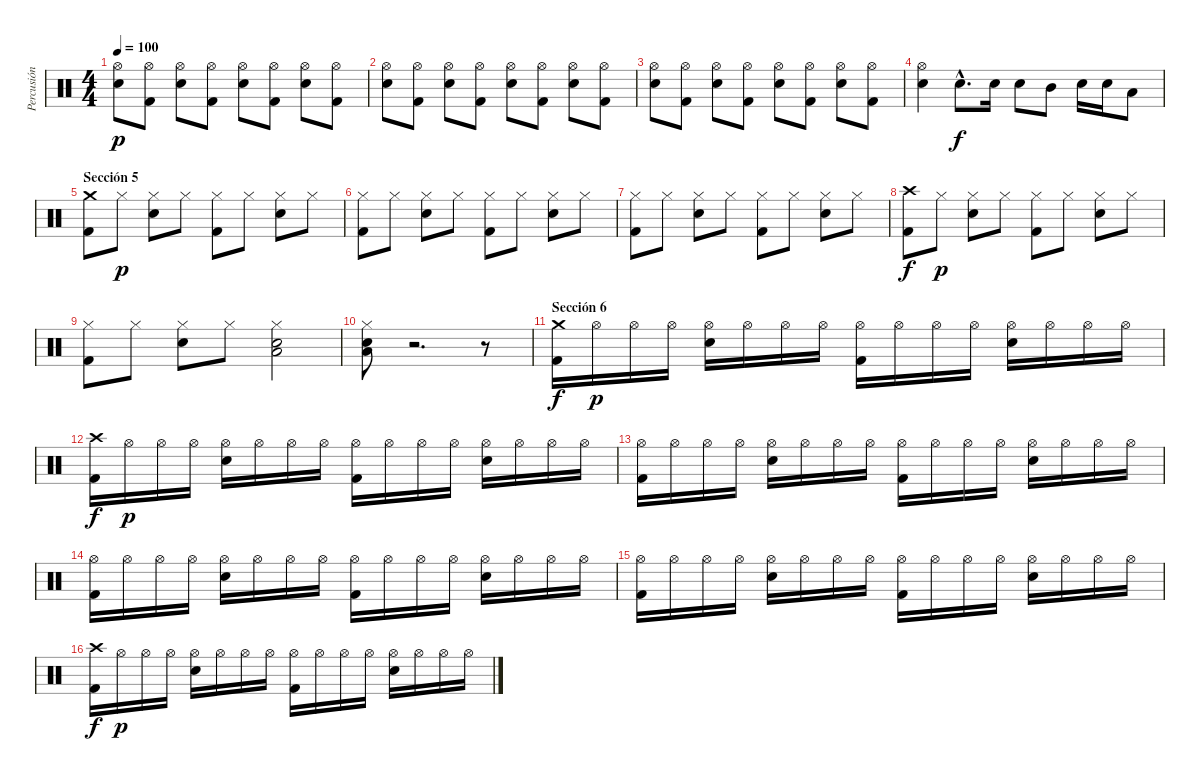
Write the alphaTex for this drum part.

\track ("Percusión" "Percusión") {instrument percussion}
\staff {score}
\articulation defaults
\ts (4 4)
\tempo 100
\clef neutral
\ks c
("Hi-Hat (open)" "Snare (hit) 2").8{dy p} ("Hi-Hat (open)" "Kick (hit) 2").8 ("Hi-Hat (open)" "Snare (hit) 2").8 ("Hi-Hat (open)" "Kick (hit) 2").8 ("Hi-Hat (open)" "Snare (hit) 2").8 ("Hi-Hat (open)" "Kick (hit) 2").8 ("Hi-Hat (open)" "Snare (hit) 2").8 ("Hi-Hat (open)" "Kick (hit) 2").8 |
("Hi-Hat (open)" "Snare (hit) 2").8 ("Hi-Hat (open)" "Kick (hit) 2").8 ("Hi-Hat (open)" "Snare (hit) 2").8 ("Hi-Hat (open)" "Kick (hit) 2").8 ("Hi-Hat (open)" "Snare (hit) 2").8 ("Hi-Hat (open)" "Kick (hit) 2").8 ("Hi-Hat (open)" "Snare (hit) 2").8 ("Hi-Hat (open)" "Kick (hit) 2").8 |
("Hi-Hat (open)" "Snare (hit) 2").8 ("Hi-Hat (open)" "Kick (hit) 2").8 ("Hi-Hat (open)" "Snare (hit) 2").8 ("Hi-Hat (open)" "Kick (hit) 2").8 ("Hi-Hat (open)" "Snare (hit) 2").8 ("Hi-Hat (open)" "Kick (hit) 2").8 ("Hi-Hat (open)" "Snare (hit) 2").8 ("Hi-Hat (open)" "Kick (hit) 2").8 |
("Hi-Hat (open)" "Snare (hit) 2").4 "Snare (hit) 2"{hac}.8{d dy f} "Snare (hit) 2".16 "Snare (hit) 2".8 "Mid Tom (hit)".8 "Snare (hit) 2".16 "Snare (hit) 2".16 "Low Tom (hit)".8 |
\section ("" "Sección 5")
("Crash medium (hit)" "Kick (hit) 2").8 "Hi-Hat (closed)".8{dy p} ("Hi-Hat (closed)" "Snare (hit) 2").8 "Hi-Hat (closed)".8 ("Hi-Hat (closed)" "Kick (hit) 2").8 "Hi-Hat (closed)".8 ("Hi-Hat (closed)" "Snare (hit) 2").8 "Hi-Hat (closed)".8 |
("Hi-Hat (closed)" "Kick (hit) 2").8 "Hi-Hat (closed)".8 ("Hi-Hat (closed)" "Snare (hit) 2").8 "Hi-Hat (closed)".8 ("Hi-Hat (closed)" "Kick (hit) 2").8 "Hi-Hat (closed)".8 ("Hi-Hat (closed)" "Snare (hit) 2").8 "Hi-Hat (closed)".8 |
("Hi-Hat (closed)" "Kick (hit) 2").8 "Hi-Hat (closed)".8 ("Hi-Hat (closed)" "Snare (hit) 2").8 "Hi-Hat (closed)".8 ("Hi-Hat (closed)" "Kick (hit) 2").8 "Hi-Hat (closed)".8 ("Hi-Hat (closed)" "Snare (hit) 2").8 "Hi-Hat (closed)".8 |
("Crash high (hit)" "Kick (hit) 2").8{dy f} "Hi-Hat (closed)".8{dy p} ("Hi-Hat (closed)" "Snare (hit) 2").8 "Hi-Hat (closed)".8 ("Hi-Hat (closed)" "Kick (hit) 2").8 "Hi-Hat (closed)".8 ("Hi-Hat (closed)" "Snare (hit) 2").8 "Hi-Hat (closed)".8 |
("Hi-Hat (closed)" "Kick (hit) 2").8 "Hi-Hat (closed)".8 ("Hi-Hat (closed)" "Snare (hit) 2").8 "Hi-Hat (closed)".8 ("Hi-Hat (closed)" "Snare (hit) 2" "Low Tom (hit)").2 |
("Hi-Hat (closed)" "Snare (hit) 2" "Low Tom (hit)").8 r.2{d} r.8 |
\section ("" "Sección 6")
("Crash medium (hit)" "Kick (hit) 2").16{dy f} "Hi-Hat (open)".16{dy p} "Hi-Hat (open)".16 "Hi-Hat (open)".16 ("Hi-Hat (open)" "Snare (hit) 2").16 "Hi-Hat (open)".16 "Hi-Hat (open)".16 "Hi-Hat (open)".16 ("Hi-Hat (open)" "Kick (hit) 2").16 "Hi-Hat (open)".16 "Hi-Hat (open)".16 "Hi-Hat (open)".16 ("Hi-Hat (open)" "Snare (hit) 2").16 "Hi-Hat (open)".16 "Hi-Hat (open)".16 "Hi-Hat (open)".16 |
("Crash high (hit)" "Kick (hit) 2").16{dy f} "Hi-Hat (open)".16{dy p} "Hi-Hat (open)".16 "Hi-Hat (open)".16 ("Hi-Hat (open)" "Snare (hit) 2").16 "Hi-Hat (open)".16 "Hi-Hat (open)".16 "Hi-Hat (open)".16 ("Hi-Hat (open)" "Kick (hit) 2").16 "Hi-Hat (open)".16 "Hi-Hat (open)".16 "Hi-Hat (open)".16 ("Hi-Hat (open)" "Snare (hit) 2").16 "Hi-Hat (open)".16 "Hi-Hat (open)".16 "Hi-Hat (open)".16 |
("Hi-Hat (open)" "Kick (hit) 2").16 "Hi-Hat (open)".16 "Hi-Hat (open)".16 "Hi-Hat (open)".16 ("Hi-Hat (open)" "Snare (hit) 2").16 "Hi-Hat (open)".16 "Hi-Hat (open)".16 "Hi-Hat (open)".16 ("Hi-Hat (open)" "Kick (hit) 2").16 "Hi-Hat (open)".16 "Hi-Hat (open)".16 "Hi-Hat (open)".16 ("Hi-Hat (open)" "Snare (hit) 2").16 "Hi-Hat (open)".16 "Hi-Hat (open)".16 "Hi-Hat (open)".16 |
("Hi-Hat (open)" "Kick (hit) 2").16 "Hi-Hat (open)".16 "Hi-Hat (open)".16 "Hi-Hat (open)".16 ("Hi-Hat (open)" "Snare (hit) 2").16 "Hi-Hat (open)".16 "Hi-Hat (open)".16 "Hi-Hat (open)".16 ("Hi-Hat (open)" "Kick (hit) 2").16 "Hi-Hat (open)".16 "Hi-Hat (open)".16 "Hi-Hat (open)".16 ("Hi-Hat (open)" "Snare (hit) 2").16 "Hi-Hat (open)".16 "Hi-Hat (open)".16 "Hi-Hat (open)".16 |
("Hi-Hat (open)" "Kick (hit) 2").16 "Hi-Hat (open)".16 "Hi-Hat (open)".16 "Hi-Hat (open)".16 ("Hi-Hat (open)" "Snare (hit) 2").16 "Hi-Hat (open)".16 "Hi-Hat (open)".16 "Hi-Hat (open)".16 ("Hi-Hat (open)" "Kick (hit) 2").16 "Hi-Hat (open)".16 "Hi-Hat (open)".16 "Hi-Hat (open)".16 ("Hi-Hat (open)" "Snare (hit) 2").16 "Hi-Hat (open)".16 "Hi-Hat (open)".16 "Hi-Hat (open)".16 |
("Crash high (hit)" "Kick (hit) 2").16{dy f} "Hi-Hat (open)".16{dy p} "Hi-Hat (open)".16 "Hi-Hat (open)".16 ("Hi-Hat (open)" "Snare (hit) 2").16 "Hi-Hat (open)".16 "Hi-Hat (open)".16 "Hi-Hat (open)".16 ("Hi-Hat (open)" "Kick (hit) 2").16 "Hi-Hat (open)".16 "Hi-Hat (open)".16 "Hi-Hat (open)".16 ("Hi-Hat (open)" "Snare (hit) 2").16 "Hi-Hat (open)".16 "Hi-Hat (open)".16 "Hi-Hat (open)".16
